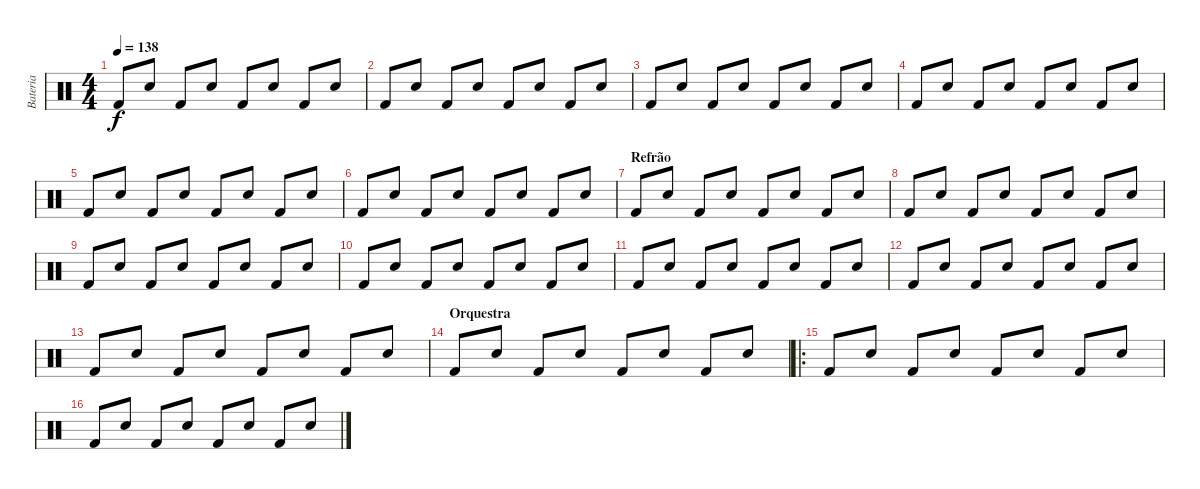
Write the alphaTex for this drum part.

\track ("Bateria" "Bateria") {instrument percussion}
\staff {score}
\articulation defaults
\ts (4 4)
\tempo 138
\clef neutral
\ks c "Kick (hit) 2".8{dy f} "Snare (hit) 2".8 "Kick (hit) 2".8 "Snare (hit) 2".8 "Kick (hit) 2".8 "Snare (hit) 2".8 "Kick (hit) 2".8 "Snare (hit) 2".8
|
"Kick (hit) 2".8 "Snare (hit) 2".8 "Kick (hit) 2".8 "Snare (hit) 2".8 "Kick (hit) 2".8 "Snare (hit) 2".8 "Kick (hit) 2".8 "Snare (hit) 2".8 |
"Kick (hit) 2".8 "Snare (hit) 2".8 "Kick (hit) 2".8 "Snare (hit) 2".8 "Kick (hit) 2".8 "Snare (hit) 2".8 "Kick (hit) 2".8 "Snare (hit) 2".8 |
"Kick (hit) 2".8 "Snare (hit) 2".8 "Kick (hit) 2".8 "Snare (hit) 2".8 "Kick (hit) 2".8 "Snare (hit) 2".8 "Kick (hit) 2".8 "Snare (hit) 2".8 |
"Kick (hit) 2".8 "Snare (hit) 2".8 "Kick (hit) 2".8 "Snare (hit) 2".8 "Kick (hit) 2".8 "Snare (hit) 2".8 "Kick (hit) 2".8 "Snare (hit) 2".8 |
"Kick (hit) 2".8 "Snare (hit) 2".8 "Kick (hit) 2".8 "Snare (hit) 2".8 "Kick (hit) 2".8 "Snare (hit) 2".8 "Kick (hit) 2".8 "Snare (hit) 2".8 |
\section ("" "Refrão")
"Kick (hit) 2".8 "Snare (hit) 2".8 "Kick (hit) 2".8 "Snare (hit) 2".8 "Kick (hit) 2".8 "Snare (hit) 2".8 "Kick (hit) 2".8 "Snare (hit) 2".8 |
"Kick (hit) 2".8 "Snare (hit) 2".8 "Kick (hit) 2".8 "Snare (hit) 2".8 "Kick (hit) 2".8 "Snare (hit) 2".8 "Kick (hit) 2".8 "Snare (hit) 2".8 |
"Kick (hit) 2".8 "Snare (hit) 2".8 "Kick (hit) 2".8 "Snare (hit) 2".8 "Kick (hit) 2".8 "Snare (hit) 2".8 "Kick (hit) 2".8 "Snare (hit) 2".8 |
"Kick (hit) 2".8 "Snare (hit) 2".8 "Kick (hit) 2".8 "Snare (hit) 2".8 "Kick (hit) 2".8 "Snare (hit) 2".8 "Kick (hit) 2".8 "Snare (hit) 2".8 |
"Kick (hit) 2".8 "Snare (hit) 2".8 "Kick (hit) 2".8 "Snare (hit) 2".8 "Kick (hit) 2".8 "Snare (hit) 2".8 "Kick (hit) 2".8 "Snare (hit) 2".8 |
"Kick (hit) 2".8 "Snare (hit) 2".8 "Kick (hit) 2".8 "Snare (hit) 2".8 "Kick (hit) 2".8 "Snare (hit) 2".8 "Kick (hit) 2".8 "Snare (hit) 2".8 |
"Kick (hit) 2".8 "Snare (hit) 2".8 "Kick (hit) 2".8 "Snare (hit) 2".8 "Kick (hit) 2".8 "Snare (hit) 2".8 "Kick (hit) 2".8 "Snare (hit) 2".8 |
\section ("" "Orquestra")
"Kick (hit) 2".8 "Snare (hit) 2".8 "Kick (hit) 2".8 "Snare (hit) 2".8 "Kick (hit) 2".8 "Snare (hit) 2".8 "Kick (hit) 2".8 "Snare (hit) 2".8 |
\ro "Kick (hit) 2".8 "Snare (hit) 2".8 "Kick (hit) 2".8 "Snare (hit) 2".8 "Kick (hit) 2".8 "Snare (hit) 2".8 "Kick (hit) 2".8 "Snare (hit) 2".8
|
"Kick (hit) 2".8 "Snare (hit) 2".8 "Kick (hit) 2".8 "Snare (hit) 2".8 "Kick (hit) 2".8 "Snare (hit) 2".8 "Kick (hit) 2".8 "Snare (hit) 2".8
